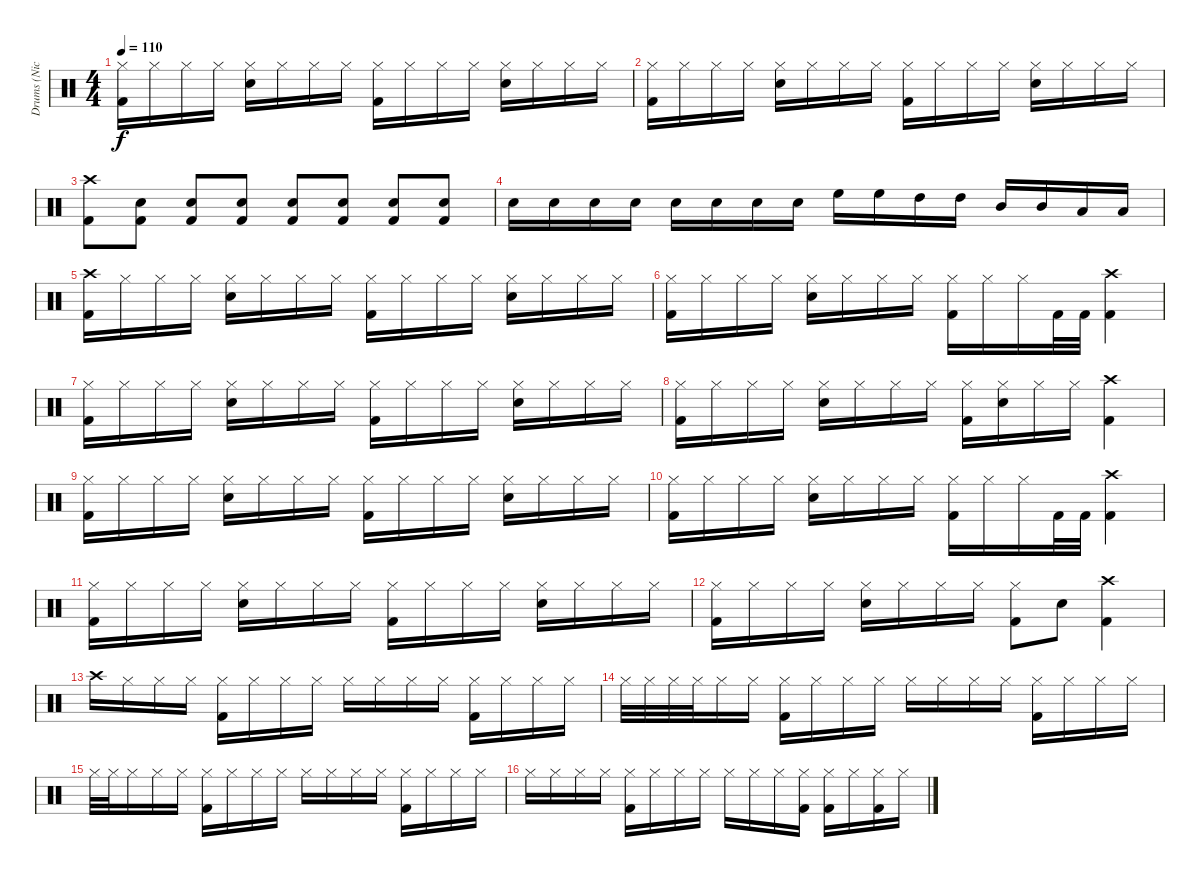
\track ("Drums (Nicko)" "Drums (Nic") {instrument percussion}
\staff {score}
\articulation defaults
\ts (4 4)
\tempo 110
\clef neutral
\ks c
("Hi-Hat (closed)" "Kick (hit) 2").16{dy f} "Hi-Hat (closed)".16 "Hi-Hat (closed)".16 "Hi-Hat (closed)".16 ("Hi-Hat (closed)" "Snare (hit) 2").16 "Hi-Hat (closed)".16 "Hi-Hat (closed)".16 "Hi-Hat (closed)".16 ("Hi-Hat (closed)" "Kick (hit) 2").16 "Hi-Hat (closed)".16 "Hi-Hat (closed)".16 "Hi-Hat (closed)".16 ("Hi-Hat (closed)" "Snare (hit) 2").16 "Hi-Hat (closed)".16 "Hi-Hat (closed)".16 "Hi-Hat (closed)".16 |
("Hi-Hat (closed)" "Kick (hit) 2").16 "Hi-Hat (closed)".16 "Hi-Hat (closed)".16 "Hi-Hat (closed)".16 ("Hi-Hat (closed)" "Snare (hit) 2").16 "Hi-Hat (closed)".16 "Hi-Hat (closed)".16 "Hi-Hat (closed)".16 ("Hi-Hat (closed)" "Kick (hit) 2").16 "Hi-Hat (closed)".16 "Hi-Hat (closed)".16 "Hi-Hat (closed)".16 ("Hi-Hat (closed)" "Snare (hit) 2").16 "Hi-Hat (closed)".16 "Hi-Hat (closed)".16 "Hi-Hat (closed)".16 |
("Crash high (hit)" "Kick (hit) 2").8 ("Kick (hit) 2" "Snare (hit) 2").8 ("Kick (hit) 2" "Snare (hit) 2").8 ("Kick (hit) 2" "Snare (hit) 2").8 ("Kick (hit) 2" "Snare (hit) 2").8 ("Kick (hit) 2" "Snare (hit) 2").8 ("Kick (hit) 2" "Snare (hit) 2").8 ("Kick (hit) 2" "Snare (hit) 2").8 |
"Snare (hit) 2".16 "Snare (hit) 2".16 "Snare (hit) 2".16 "Snare (hit) 2".16 "Snare (hit) 2".16 "Snare (hit) 2".16 "Snare (hit) 2".16 "Snare (hit) 2".16 "High Floor Tom (hit)".16 "High Floor Tom (hit)".16 "High Tom (hit)".16 "High Tom (hit)".16 "Mid Tom (hit)".16 "Mid Tom (hit)".16 "Low Tom (hit)".16 "Low Tom (hit)".16 |
("Crash high (hit)" "Kick (hit) 2").16 "Hi-Hat (closed)".16 "Hi-Hat (closed)".16 "Hi-Hat (closed)".16 ("Hi-Hat (closed)" "Snare (hit) 2").16 "Hi-Hat (closed)".16 "Hi-Hat (closed)".16 "Hi-Hat (closed)".16 ("Hi-Hat (closed)" "Kick (hit) 2").16 "Hi-Hat (closed)".16 "Hi-Hat (closed)".16 "Hi-Hat (closed)".16 ("Hi-Hat (closed)" "Snare (hit) 2").16 "Hi-Hat (closed)".16 "Hi-Hat (closed)".16 "Hi-Hat (closed)".16 |
("Hi-Hat (closed)" "Kick (hit) 2").16 "Hi-Hat (closed)".16 "Hi-Hat (closed)".16 "Hi-Hat (closed)".16 ("Hi-Hat (closed)" "Snare (hit) 2").16 "Hi-Hat (closed)".16 "Hi-Hat (closed)".16 "Hi-Hat (closed)".16 ("Hi-Hat (closed)" "Kick (hit) 2").16 "Hi-Hat (closed)".16 "Hi-Hat (closed)".16 "Kick (hit) 2".32 "Kick (hit) 2".32 ("Crash high (hit)" "Kick (hit) 2").4 |
("Hi-Hat (closed)" "Kick (hit) 2").16 "Hi-Hat (closed)".16 "Hi-Hat (closed)".16 "Hi-Hat (closed)".16 ("Hi-Hat (closed)" "Snare (hit) 2").16 "Hi-Hat (closed)".16 "Hi-Hat (closed)".16 "Hi-Hat (closed)".16 ("Hi-Hat (closed)" "Kick (hit) 2").16 "Hi-Hat (closed)".16 "Hi-Hat (closed)".16 "Hi-Hat (closed)".16 ("Hi-Hat (closed)" "Snare (hit) 2").16 "Hi-Hat (closed)".16 "Hi-Hat (closed)".16 "Hi-Hat (closed)".16 |
("Hi-Hat (closed)" "Kick (hit) 2").16 "Hi-Hat (closed)".16 "Hi-Hat (closed)".16 "Hi-Hat (closed)".16 ("Hi-Hat (closed)" "Snare (hit) 2").16 "Hi-Hat (closed)".16 "Hi-Hat (closed)".16 "Hi-Hat (closed)".16 ("Hi-Hat (closed)" "Kick (hit) 2").16 ("Hi-Hat (closed)" "Snare (hit) 2").16 "Hi-Hat (closed)".16 "Hi-Hat (closed)".16 ("Crash high (hit)" "Kick (hit) 2").4 |
("Hi-Hat (closed)" "Kick (hit) 2").16 "Hi-Hat (closed)".16 "Hi-Hat (closed)".16 "Hi-Hat (closed)".16 ("Hi-Hat (closed)" "Snare (hit) 2").16 "Hi-Hat (closed)".16 "Hi-Hat (closed)".16 "Hi-Hat (closed)".16 ("Hi-Hat (closed)" "Kick (hit) 2").16 "Hi-Hat (closed)".16 "Hi-Hat (closed)".16 "Hi-Hat (closed)".16 ("Hi-Hat (closed)" "Snare (hit) 2").16 "Hi-Hat (closed)".16 "Hi-Hat (closed)".16 "Hi-Hat (closed)".16 |
("Hi-Hat (closed)" "Kick (hit) 2").16 "Hi-Hat (closed)".16 "Hi-Hat (closed)".16 "Hi-Hat (closed)".16 ("Hi-Hat (closed)" "Snare (hit) 2").16 "Hi-Hat (closed)".16 "Hi-Hat (closed)".16 "Hi-Hat (closed)".16 ("Hi-Hat (closed)" "Kick (hit) 2").16 "Hi-Hat (closed)".16 "Hi-Hat (closed)".16 "Kick (hit) 2".32 "Kick (hit) 2".32 ("Crash high (hit)" "Kick (hit) 2").4 |
("Hi-Hat (closed)" "Kick (hit) 2").16 "Hi-Hat (closed)".16 "Hi-Hat (closed)".16 "Hi-Hat (closed)".16 ("Hi-Hat (closed)" "Snare (hit) 2").16 "Hi-Hat (closed)".16 "Hi-Hat (closed)".16 "Hi-Hat (closed)".16 ("Hi-Hat (closed)" "Kick (hit) 2").16 "Hi-Hat (closed)".16 "Hi-Hat (closed)".16 "Hi-Hat (closed)".16 ("Hi-Hat (closed)" "Snare (hit) 2").16 "Hi-Hat (closed)".16 "Hi-Hat (closed)".16 "Hi-Hat (closed)".16 |
("Hi-Hat (closed)" "Kick (hit) 2").16 "Hi-Hat (closed)".16 "Hi-Hat (closed)".16 "Hi-Hat (closed)".16 ("Hi-Hat (closed)" "Snare (hit) 2").16 "Hi-Hat (closed)".16 "Hi-Hat (closed)".16 "Hi-Hat (closed)".16 ("Hi-Hat (closed)" "Kick (hit) 2").8 "Snare (hit) 2".8 ("Crash high (hit)" "Kick (hit) 2").4 |
"Crash high (hit)".16 "Hi-Hat (closed)".16 "Hi-Hat (closed)".16 "Hi-Hat (closed)".16 ("Hi-Hat (closed)" "Kick (hit) 2").16 "Hi-Hat (closed)".16 "Hi-Hat (closed)".16 "Hi-Hat (closed)".16 "Hi-Hat (closed)".16 "Hi-Hat (closed)".16 "Hi-Hat (closed)".16 "Hi-Hat (closed)".16 ("Hi-Hat (closed)" "Kick (hit) 2").16 "Hi-Hat (closed)".16 "Hi-Hat (closed)".16 "Hi-Hat (closed)".16 |
"Hi-Hat (closed)".32 "Hi-Hat (closed)".32 "Hi-Hat (closed)".32 "Hi-Hat (closed)".32 "Hi-Hat (closed)".16 "Hi-Hat (closed)".16 ("Hi-Hat (closed)" "Kick (hit) 2").16 "Hi-Hat (closed)".16 "Hi-Hat (closed)".16 "Hi-Hat (closed)".16 "Hi-Hat (closed)".16 "Hi-Hat (closed)".16 "Hi-Hat (closed)".16 "Hi-Hat (closed)".16 ("Hi-Hat (closed)" "Kick (hit) 2").16 "Hi-Hat (closed)".16 "Hi-Hat (closed)".16 "Hi-Hat (closed)".16 |
"Hi-Hat (closed)".32 "Hi-Hat (closed)".32 "Hi-Hat (closed)".16 "Hi-Hat (closed)".16 "Hi-Hat (closed)".16 ("Hi-Hat (closed)" "Kick (hit) 2").16 "Hi-Hat (closed)".16 "Hi-Hat (closed)".16 "Hi-Hat (closed)".16 "Hi-Hat (closed)".16 "Hi-Hat (closed)".16 "Hi-Hat (closed)".16 "Hi-Hat (closed)".16 ("Hi-Hat (closed)" "Kick (hit) 2").16 "Hi-Hat (closed)".16 "Hi-Hat (closed)".16 "Hi-Hat (closed)".16 |
"Hi-Hat (closed)".16 "Hi-Hat (closed)".16 "Hi-Hat (closed)".16 "Hi-Hat (closed)".16 ("Hi-Hat (closed)" "Kick (hit) 2").16 "Hi-Hat (closed)".16 "Hi-Hat (closed)".16 "Hi-Hat (closed)".16 "Hi-Hat (closed)".16 "Hi-Hat (closed)".16 "Hi-Hat (closed)".16 ("Hi-Hat (closed)" "Kick (hit) 2").16 ("Hi-Hat (closed)" "Kick (hit) 2").16 "Hi-Hat (closed)".16 ("Hi-Hat (closed)" "Kick (hit) 2").16 "Hi-Hat (closed)".16
